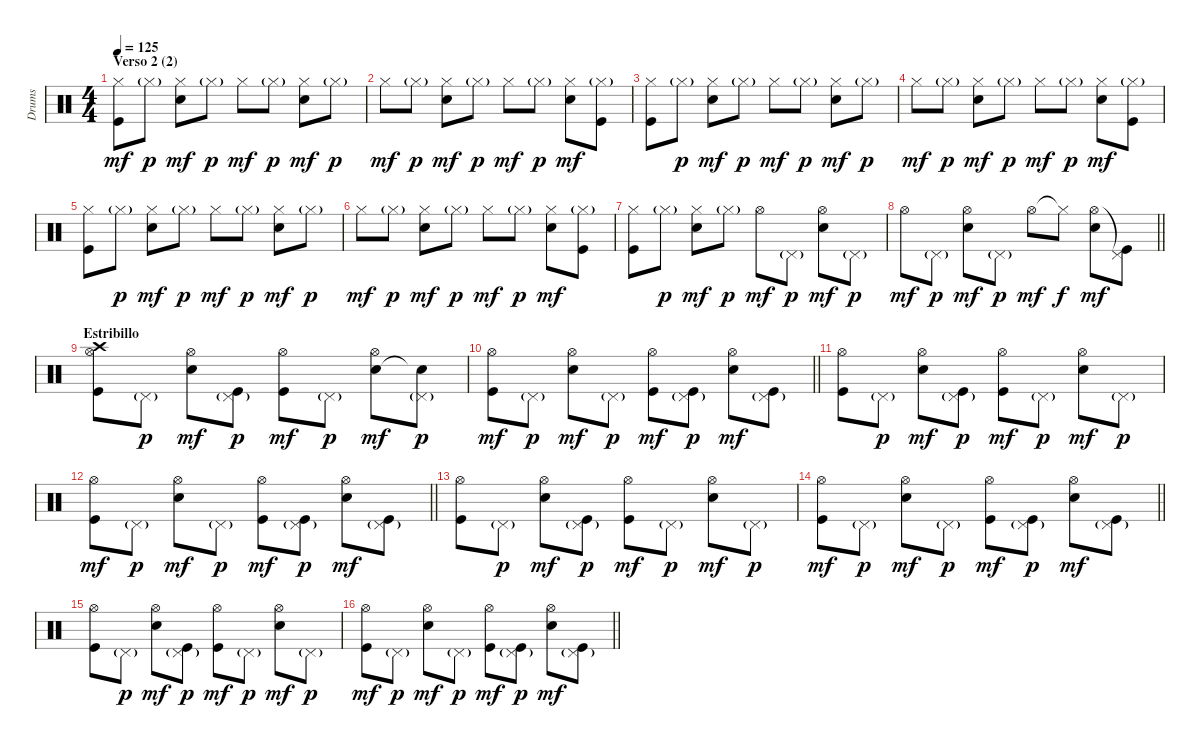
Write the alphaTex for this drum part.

\track ("Drums" "Drums") {instrument percussion}
\staff {score}
\articulation defaults
\ts (4 4)
\section ("" "Verso 2 (2)")
\tempo 125
\clef neutral
\ks c
("Hi-Hat (closed)" "Kick (hit)").8{dy mf} "Hi-Hat (closed)"{g}.8{dy p} ("Hi-Hat (closed)" "Electric Snare (hit)").8{dy mf} "Hi-Hat (closed)"{g}.8{dy p} "Hi-Hat (closed)".8{dy mf} "Hi-Hat (closed)"{g}.8{dy p} ("Hi-Hat (closed)" "Electric Snare (hit)").8{dy mf} "Hi-Hat (closed)"{g}.8{dy p} |
"Hi-Hat (closed)".8{dy mf} "Hi-Hat (closed)"{g}.8{dy p} ("Hi-Hat (closed)" "Electric Snare (hit)").8{dy mf} "Hi-Hat (closed)"{g}.8{dy p} "Hi-Hat (closed)".8{dy mf} "Hi-Hat (closed)"{g}.8{dy p} ("Hi-Hat (closed)" "Electric Snare (hit)").8{dy mf} ("Hi-Hat (closed)"{g} "Kick (hit)").8 |
("Hi-Hat (closed)" "Kick (hit)").8 "Hi-Hat (closed)"{g}.8{dy p} ("Hi-Hat (closed)" "Electric Snare (hit)").8{dy mf} "Hi-Hat (closed)"{g}.8{dy p} "Hi-Hat (closed)".8{dy mf} "Hi-Hat (closed)"{g}.8{dy p} ("Hi-Hat (closed)" "Electric Snare (hit)").8{dy mf} "Hi-Hat (closed)"{g}.8{dy p} |
"Hi-Hat (closed)".8{dy mf} "Hi-Hat (closed)"{g}.8{dy p} ("Hi-Hat (closed)" "Electric Snare (hit)").8{dy mf} "Hi-Hat (closed)"{g}.8{dy p} "Hi-Hat (closed)".8{dy mf} "Hi-Hat (closed)"{g}.8{dy p} ("Hi-Hat (closed)" "Electric Snare (hit)").8{dy mf} ("Hi-Hat (closed)"{g} "Kick (hit)").8 |
("Hi-Hat (closed)" "Kick (hit)").8 "Hi-Hat (closed)"{g}.8{dy p} ("Hi-Hat (closed)" "Electric Snare (hit)").8{dy mf} "Hi-Hat (closed)"{g}.8{dy p} "Hi-Hat (closed)".8{dy mf} "Hi-Hat (closed)"{g}.8{dy p} ("Hi-Hat (closed)" "Electric Snare (hit)").8{dy mf} "Hi-Hat (closed)"{g}.8{dy p} |
"Hi-Hat (closed)".8{dy mf} "Hi-Hat (closed)"{g}.8{dy p} ("Hi-Hat (closed)" "Electric Snare (hit)").8{dy mf} "Hi-Hat (closed)"{g}.8{dy p} "Hi-Hat (closed)".8{dy mf} "Hi-Hat (closed)"{g}.8{dy p} ("Hi-Hat (closed)" "Electric Snare (hit)").8{dy mf} ("Hi-Hat (closed)"{g} "Kick (hit)").8 |
("Hi-Hat (closed)" "Kick (hit)").8 "Hi-Hat (closed)"{g}.8{dy p} ("Hi-Hat (closed)" "Electric Snare (hit)").8{dy mf} "Hi-Hat (closed)"{g}.8{dy p} "Hi-Hat (open)".8{dy mf} "Pedal Hi-Hat (hit)"{g}.8{dy p} ("Hi-Hat (open)" "Electric Snare (hit)").8{dy mf} "Pedal Hi-Hat (hit)"{g}.8{dy p} |
\barLineRight lightlight "Hi-Hat (open)".8{dy mf} "Pedal Hi-Hat (hit)"{g}.8{dy p}
("Hi-Hat (open)" "Electric Snare (hit)").8{dy mf} "Pedal Hi-Hat (hit)"{g}.8{dy p} "Hi-Hat (open)".8{dy mf} "Hi-Hat (closed)"{t}.8{dy f} ("Hi-Hat (open)" "Electric Snare (hit)").8{dy mf} ("Pedal Hi-Hat (hit)"{t} "Kick (hit)").8 |
\section ("" "Estribillo")
("Hi-Hat (open)" "Kick (hit)" "Crash high (hit)").8 "Pedal Hi-Hat (hit)"{g}.8{dy p} ("Hi-Hat (open)" "Electric Snare (hit)").8{dy mf} ("Pedal Hi-Hat (hit)"{g} "Kick (hit)").8{dy p} ("Hi-Hat (open)" "Kick (hit)").8{dy mf} "Pedal Hi-Hat (hit)"{g}.8{dy p} ("Hi-Hat (open)" "Electric Snare (hit)").8{dy mf} ("Pedal Hi-Hat (hit)"{g} "Snare (hit)"{t}).8{dy p} |
\barLineRight lightlight
("Hi-Hat (open)" "Kick (hit)").8{dy mf} "Pedal Hi-Hat (hit)"{g}.8{dy p} ("Hi-Hat (open)" "Electric Snare (hit)").8{dy mf} "Pedal Hi-Hat (hit)"{g}.8{dy p} ("Hi-Hat (open)" "Kick (hit)").8{dy mf} ("Pedal Hi-Hat (hit)"{g} "Kick (hit)").8{dy p} ("Hi-Hat (open)" "Electric Snare (hit)").8{dy mf} ("Pedal Hi-Hat (hit)"{g} "Kick (hit)").8 |
("Hi-Hat (open)" "Kick (hit)").8 "Pedal Hi-Hat (hit)"{g}.8{dy p} ("Hi-Hat (open)" "Electric Snare (hit)").8{dy mf} ("Pedal Hi-Hat (hit)"{g} "Kick (hit)").8{dy p} ("Hi-Hat (open)" "Kick (hit)").8{dy mf} "Pedal Hi-Hat (hit)"{g}.8{dy p} ("Hi-Hat (open)" "Electric Snare (hit)").8{dy mf} "Pedal Hi-Hat (hit)"{g}.8{dy p} |
\barLineRight lightlight
("Hi-Hat (open)" "Kick (hit)").8{dy mf} "Pedal Hi-Hat (hit)"{g}.8{dy p} ("Hi-Hat (open)" "Electric Snare (hit)").8{dy mf} "Pedal Hi-Hat (hit)"{g}.8{dy p} ("Hi-Hat (open)" "Kick (hit)").8{dy mf} ("Pedal Hi-Hat (hit)"{g} "Kick (hit)").8{dy p} ("Hi-Hat (open)" "Electric Snare (hit)").8{dy mf} ("Pedal Hi-Hat (hit)"{g} "Kick (hit)").8 |
("Hi-Hat (open)" "Kick (hit)").8 "Pedal Hi-Hat (hit)"{g}.8{dy p} ("Hi-Hat (open)" "Electric Snare (hit)").8{dy mf} ("Pedal Hi-Hat (hit)"{g} "Kick (hit)").8{dy p} ("Hi-Hat (open)" "Kick (hit)").8{dy mf} "Pedal Hi-Hat (hit)"{g}.8{dy p} ("Hi-Hat (open)" "Electric Snare (hit)").8{dy mf} "Pedal Hi-Hat (hit)"{g}.8{dy p} |
\barLineRight lightlight
("Hi-Hat (open)" "Kick (hit)").8{dy mf} "Pedal Hi-Hat (hit)"{g}.8{dy p} ("Hi-Hat (open)" "Electric Snare (hit)").8{dy mf} "Pedal Hi-Hat (hit)"{g}.8{dy p} ("Hi-Hat (open)" "Kick (hit)").8{dy mf} ("Pedal Hi-Hat (hit)"{g} "Kick (hit)").8{dy p} ("Hi-Hat (open)" "Electric Snare (hit)").8{dy mf} ("Pedal Hi-Hat (hit)"{g} "Kick (hit)").8 |
("Hi-Hat (open)" "Kick (hit)").8 "Pedal Hi-Hat (hit)"{g}.8{dy p} ("Hi-Hat (open)" "Electric Snare (hit)").8{dy mf} ("Pedal Hi-Hat (hit)"{g} "Kick (hit)").8{dy p} ("Hi-Hat (open)" "Kick (hit)").8{dy mf} "Pedal Hi-Hat (hit)"{g}.8{dy p} ("Hi-Hat (open)" "Electric Snare (hit)").8{dy mf} "Pedal Hi-Hat (hit)"{g}.8{dy p} |
\barLineRight lightlight
("Hi-Hat (open)" "Kick (hit)").8{dy mf} "Pedal Hi-Hat (hit)"{g}.8{dy p} ("Hi-Hat (open)" "Electric Snare (hit)").8{dy mf} "Pedal Hi-Hat (hit)"{g}.8{dy p} ("Hi-Hat (open)" "Kick (hit)").8{dy mf} ("Pedal Hi-Hat (hit)"{g} "Kick (hit)").8{dy p} ("Hi-Hat (open)" "Electric Snare (hit)").8{dy mf} ("Pedal Hi-Hat (hit)"{g} "Kick (hit)").8
